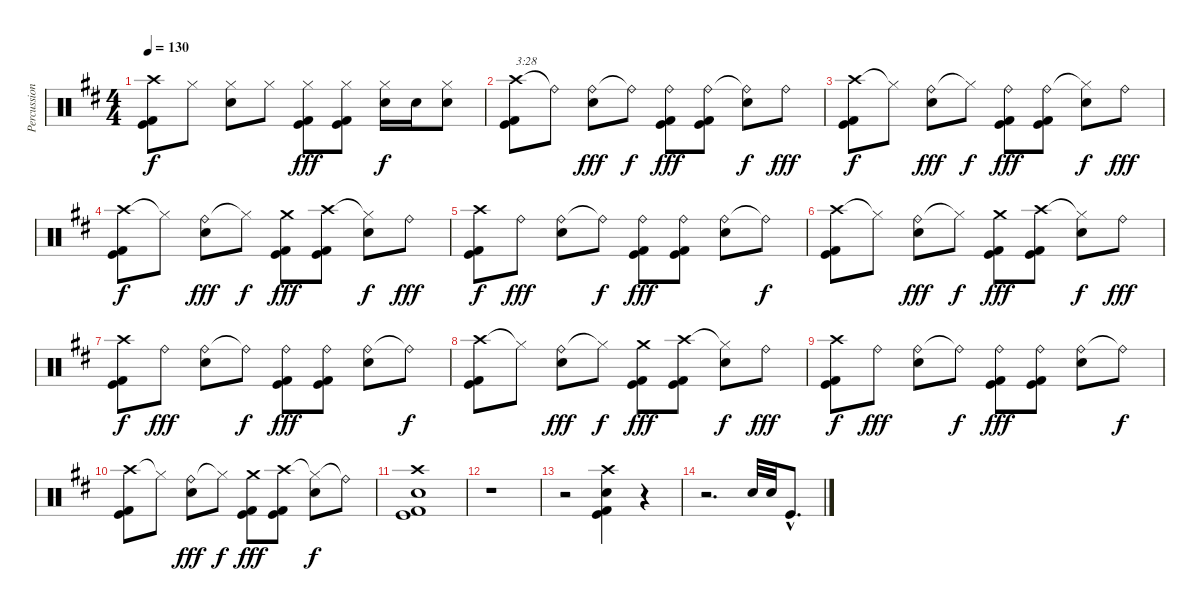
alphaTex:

\track ("Percussion" "Percussion") {instrument percussion}
\staff {score}
\articulation defaults
\ts (4 4)
\tempo 130
\clef neutral
\ks d
("Crash high (hit)" "Kick (hit)" "Kick (hit) 2").8{dy f} "Hi-Hat (closed)".8 ("Hi-Hat (closed)" "Electric Snare (hit)").8 "Hi-Hat (closed)".8 ("Hi-Hat (closed)" "Kick (hit)" "Kick (hit) 2").8{dy fff} ("Hi-Hat (closed)" "Kick (hit)" "Kick (hit) 2").8 ("Hi-Hat (closed)" "Electric Snare (hit)").16{dy f} "Electric Snare (hit)".16 ("Hi-Hat (closed)" "Electric Snare (hit)").8 |
("Crash high (hit)" "Kick (hit)" "Kick (hit) 2").8{txt "3:28"} "Ride (bell)"{t}.8 ("Ride (bell)" "Electric Snare (hit)").8{dy fff} "Ride (bell)"{t}.8{dy f} ("Ride (bell)" "Kick (hit)" "Kick (hit) 2").8{dy fff} ("Ride (bell)" "Kick (hit)" "Kick (hit) 2").8 ("Ride (bell)"{t} "Electric Snare (hit)").8{dy f} "Ride (bell)".8{dy fff} |
("Crash high (hit)" "Kick (hit)" "Kick (hit) 2").8{dy f} "Hi-Hat (closed)"{t}.8 ("Ride (bell)" "Electric Snare (hit)").8{dy fff} "Hi-Hat (closed)"{t}.8{dy f} ("Ride (bell)" "Kick (hit)" "Kick (hit) 2").8{dy fff} ("Ride (bell)" "Kick (hit)" "Kick (hit) 2").8 ("Hi-Hat (closed)"{t} "Electric Snare (hit)").8{dy f} "Ride (bell)".8{dy fff} |
("Crash high (hit)" "Kick (hit)" "Kick (hit) 2").8{dy f} "Hi-Hat (closed)"{t}.8 ("Ride (bell)" "Electric Snare (hit)").8{dy fff} "Hi-Hat (closed)"{t}.8{dy f} ("Crash medium (hit)" "Kick (hit)" "Kick (hit) 2").8{dy fff} ("Crash high (hit)" "Kick (hit)" "Kick (hit) 2").8 ("Hi-Hat (closed)"{t} "Electric Snare (hit)").8{dy f} "Ride (bell)".8{dy fff} |
("Crash high (hit)" "Kick (hit)" "Kick (hit) 2").8{dy f} "Ride (bell)".8{dy fff} ("Ride (bell)" "Electric Snare (hit)").8 "Ride (bell)"{t}.8{dy f} ("Ride (bell)" "Kick (hit)" "Kick (hit) 2").8{dy fff} ("Ride (bell)" "Kick (hit)" "Kick (hit) 2").8 ("Ride (bell)" "Electric Snare (hit)").8 "Ride (bell)"{t}.8{dy f} |
("Crash high (hit)" "Kick (hit)" "Kick (hit) 2").8 "Hi-Hat (closed)"{t}.8 ("Ride (bell)" "Electric Snare (hit)").8{dy fff} "Hi-Hat (closed)"{t}.8{dy f} ("Crash medium (hit)" "Kick (hit)" "Kick (hit) 2").8{dy fff} ("Crash high (hit)" "Kick (hit)" "Kick (hit) 2").8 ("Hi-Hat (closed)"{t} "Electric Snare (hit)").8{dy f} "Ride (bell)".8{dy fff} |
("Crash high (hit)" "Kick (hit)" "Kick (hit) 2").8{dy f} "Ride (bell)".8{dy fff} ("Ride (bell)" "Electric Snare (hit)").8 "Ride (bell)"{t}.8{dy f} ("Ride (bell)" "Kick (hit)" "Kick (hit) 2").8{dy fff} ("Ride (bell)" "Kick (hit)" "Kick (hit) 2").8 ("Ride (bell)" "Electric Snare (hit)").8 "Ride (bell)"{t}.8{dy f} |
("Crash high (hit)" "Kick (hit)" "Kick (hit) 2").8 "Hi-Hat (closed)"{t}.8 ("Ride (bell)" "Electric Snare (hit)").8{dy fff} "Hi-Hat (closed)"{t}.8{dy f} ("Crash medium (hit)" "Kick (hit)" "Kick (hit) 2").8{dy fff} ("Crash high (hit)" "Kick (hit)" "Kick (hit) 2").8 ("Hi-Hat (closed)"{t} "Electric Snare (hit)").8{dy f} "Ride (bell)".8{dy fff} |
("Crash high (hit)" "Kick (hit)" "Kick (hit) 2").8{dy f} "Ride (bell)".8{dy fff} ("Ride (bell)" "Electric Snare (hit)").8 "Ride (bell)"{t}.8{dy f} ("Ride (bell)" "Kick (hit)" "Kick (hit) 2").8{dy fff} ("Ride (bell)" "Kick (hit)" "Kick (hit) 2").8 ("Ride (bell)" "Electric Snare (hit)").8 "Ride (bell)"{t}.8{dy f} |
("Crash high (hit)" "Kick (hit)" "Kick (hit) 2").8 "Hi-Hat (closed)"{t}.8 ("Ride (bell)" "Electric Snare (hit)").8{dy fff} "Hi-Hat (closed)"{t}.8{dy f} ("Crash medium (hit)" "Kick (hit)" "Kick (hit) 2").8{dy fff} ("Crash high (hit)" "Kick (hit)" "Kick (hit) 2").8 ("Hi-Hat (closed)"{t} "Electric Snare (hit)").8{dy f} "Ride (bell)"{t}.8 |
("Crash high (hit)" "Electric Snare (hit)" "Kick (hit)" "Kick (hit) 2").1 |
r.1 |
r.2 ("Crash high (hit)" "Electric Snare (hit)" "Kick (hit)" "Kick (hit) 2").4{volume 16} r.4 |
r.2{d} "Electric Snare (hit)".32{volume 16} "Electric Snare (hit)".32 "Kick (hit)"{hac}.8{d}
